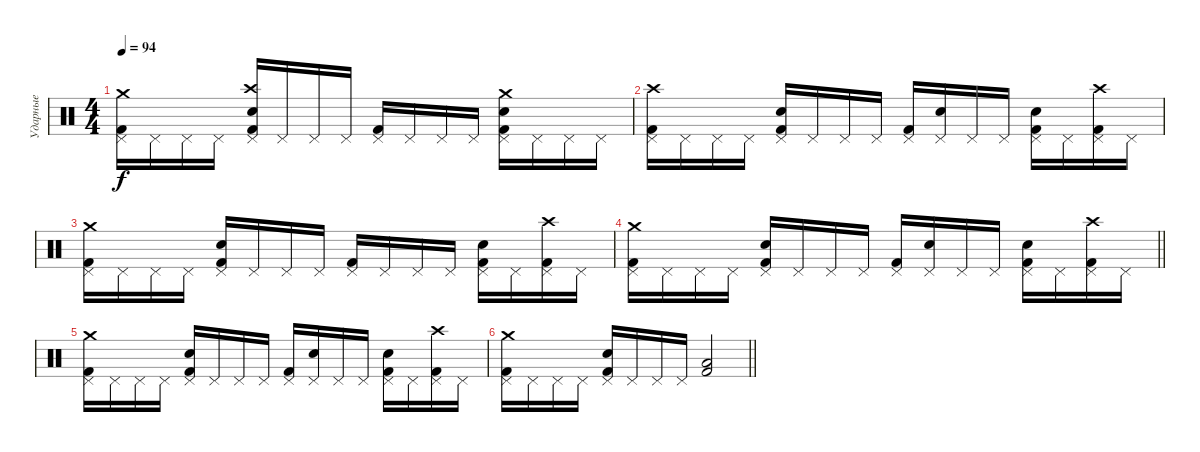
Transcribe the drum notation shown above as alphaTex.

\track ("Ударные" "Ударные") {instrument percussion}
\staff {score}
\articulation defaults
\ts (4 4)
\tempo 94
\clef neutral
\ks c
("Crash medium (hit)" "Pedal Hi-Hat (hit)" "Kick (hit) 2").16{dy f} "Pedal Hi-Hat (hit)".16 "Pedal Hi-Hat (hit)".16 "Pedal Hi-Hat (hit)".16 ("Crash high (hit)" "Pedal Hi-Hat (hit)" "Snare (hit) 2" "Kick (hit) 2").16 "Pedal Hi-Hat (hit)".16 "Pedal Hi-Hat (hit)".16 "Pedal Hi-Hat (hit)".16 ("Pedal Hi-Hat (hit)" "Kick (hit) 2").16 "Pedal Hi-Hat (hit)".16 "Pedal Hi-Hat (hit)".16 "Pedal Hi-Hat (hit)".16 ("Crash medium (hit)" "Pedal Hi-Hat (hit)" "Snare (hit) 2" "Kick (hit) 2").16 "Pedal Hi-Hat (hit)".16 "Pedal Hi-Hat (hit)".16 "Pedal Hi-Hat (hit)".16 |
("Crash high (hit)" "Pedal Hi-Hat (hit)" "Kick (hit) 2").16 "Pedal Hi-Hat (hit)".16 "Pedal Hi-Hat (hit)".16 "Pedal Hi-Hat (hit)".16 ("Pedal Hi-Hat (hit)" "Snare (hit) 2" "Kick (hit) 2").16 "Pedal Hi-Hat (hit)".16 "Pedal Hi-Hat (hit)".16 "Pedal Hi-Hat (hit)".16 ("Pedal Hi-Hat (hit)" "Kick (hit) 2").16 ("Pedal Hi-Hat (hit)" "Snare (hit) 2").16 "Pedal Hi-Hat (hit)".16 "Pedal Hi-Hat (hit)".16 ("Pedal Hi-Hat (hit)" "Snare (hit) 2" "Kick (hit) 2").16 "Pedal Hi-Hat (hit)".16 ("Crash high (hit)" "Pedal Hi-Hat (hit)" "Kick (hit) 2").16 "Pedal Hi-Hat (hit)".16 |
("Crash medium (hit)" "Pedal Hi-Hat (hit)" "Kick (hit) 2").16 "Pedal Hi-Hat (hit)".16 "Pedal Hi-Hat (hit)".16 "Pedal Hi-Hat (hit)".16 ("Pedal Hi-Hat (hit)" "Snare (hit) 2" "Kick (hit) 2").16 "Pedal Hi-Hat (hit)".16 "Pedal Hi-Hat (hit)".16 "Pedal Hi-Hat (hit)".16 ("Pedal Hi-Hat (hit)" "Kick (hit) 2").16 "Pedal Hi-Hat (hit)".16 "Pedal Hi-Hat (hit)".16 "Pedal Hi-Hat (hit)".16 ("Pedal Hi-Hat (hit)" "Snare (hit) 2" "Kick (hit) 2").16 "Pedal Hi-Hat (hit)".16 ("Crash high (hit)" "Pedal Hi-Hat (hit)" "Kick (hit) 2").16 "Pedal Hi-Hat (hit)".16 |
\barLineRight lightlight
("Crash medium (hit)" "Pedal Hi-Hat (hit)" "Kick (hit) 2").16 "Pedal Hi-Hat (hit)".16 "Pedal Hi-Hat (hit)".16 "Pedal Hi-Hat (hit)".16 ("Pedal Hi-Hat (hit)" "Snare (hit) 2" "Kick (hit) 2").16 "Pedal Hi-Hat (hit)".16 "Pedal Hi-Hat (hit)".16 "Pedal Hi-Hat (hit)".16 ("Pedal Hi-Hat (hit)" "Kick (hit) 2").16 ("Pedal Hi-Hat (hit)" "Snare (hit) 2").16 "Pedal Hi-Hat (hit)".16 "Pedal Hi-Hat (hit)".16 ("Pedal Hi-Hat (hit)" "Snare (hit) 2" "Kick (hit) 2").16 "Pedal Hi-Hat (hit)".16 ("Crash high (hit)" "Pedal Hi-Hat (hit)" "Kick (hit) 2").16 "Pedal Hi-Hat (hit)".16 |
("Crash medium (hit)" "Pedal Hi-Hat (hit)" "Kick (hit) 2").16 "Pedal Hi-Hat (hit)".16 "Pedal Hi-Hat (hit)".16 "Pedal Hi-Hat (hit)".16 ("Pedal Hi-Hat (hit)" "Snare (hit) 2" "Kick (hit) 2").16 "Pedal Hi-Hat (hit)".16 "Pedal Hi-Hat (hit)".16 "Pedal Hi-Hat (hit)".16 ("Pedal Hi-Hat (hit)" "Kick (hit) 2").16 ("Pedal Hi-Hat (hit)" "Snare (hit) 2").16 "Pedal Hi-Hat (hit)".16 "Pedal Hi-Hat (hit)".16 ("Pedal Hi-Hat (hit)" "Snare (hit) 2" "Kick (hit) 2").16 "Pedal Hi-Hat (hit)".16 ("Crash high (hit)" "Pedal Hi-Hat (hit)" "Kick (hit) 2").16 "Pedal Hi-Hat (hit)".16 |
\barLineRight lightlight
("Crash medium (hit)" "Pedal Hi-Hat (hit)" "Kick (hit) 2").16 "Pedal Hi-Hat (hit)".16 "Pedal Hi-Hat (hit)".16 "Pedal Hi-Hat (hit)".16 ("Pedal Hi-Hat (hit)" "Snare (hit) 2" "Kick (hit) 2").16 "Pedal Hi-Hat (hit)".16 "Pedal Hi-Hat (hit)".16 "Pedal Hi-Hat (hit)".16 ("Low Floor Tom (hit)" "Kick (hit) 2").2
